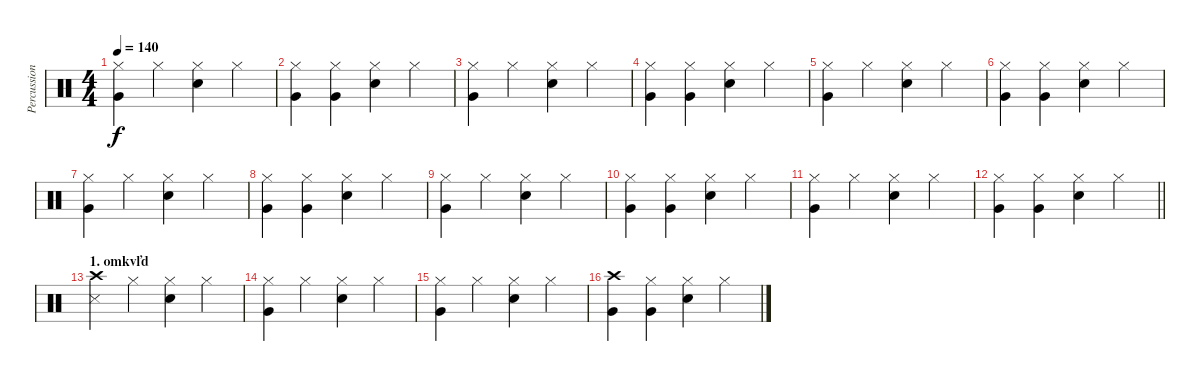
\track ("Percussion" "Percussion") {instrument percussion}
\staff {score}
\articulation defaults
\ts (4 4)
\tempo 140
\clef neutral
\ks c
("Hi-Hat (closed)" "Very Low Tom (hit)").4{dy f} "Hi-Hat (closed)".4 ("Hi-Hat (closed)" "Electric Snare (hit)").4 "Hi-Hat (closed)".4 |
("Hi-Hat (closed)" "Very Low Tom (hit)").4 ("Hi-Hat (closed)" "Very Low Tom (hit)").4 ("Hi-Hat (closed)" "Electric Snare (hit)").4 "Hi-Hat (closed)".4 |
("Hi-Hat (closed)" "Very Low Tom (hit)").4 "Hi-Hat (closed)".4 ("Hi-Hat (closed)" "Electric Snare (hit)").4 "Hi-Hat (closed)".4 |
("Hi-Hat (closed)" "Very Low Tom (hit)").4 ("Hi-Hat (closed)" "Very Low Tom (hit)").4 ("Hi-Hat (closed)" "Electric Snare (hit)").4 "Hi-Hat (closed)".4 |
("Hi-Hat (closed)" "Very Low Tom (hit)").4 "Hi-Hat (closed)".4 ("Hi-Hat (closed)" "Electric Snare (hit)").4 "Hi-Hat (closed)".4 |
("Hi-Hat (closed)" "Very Low Tom (hit)").4 ("Hi-Hat (closed)" "Very Low Tom (hit)").4 ("Hi-Hat (closed)" "Electric Snare (hit)").4 "Hi-Hat (closed)".4 |
("Hi-Hat (closed)" "Very Low Tom (hit)").4 "Hi-Hat (closed)".4 ("Hi-Hat (closed)" "Electric Snare (hit)").4 "Hi-Hat (closed)".4 |
("Hi-Hat (closed)" "Very Low Tom (hit)").4 ("Hi-Hat (closed)" "Very Low Tom (hit)").4 ("Hi-Hat (closed)" "Electric Snare (hit)").4 "Hi-Hat (closed)".4 |
("Hi-Hat (closed)" "Very Low Tom (hit)").4 "Hi-Hat (closed)".4 ("Hi-Hat (closed)" "Electric Snare (hit)").4 "Hi-Hat (closed)".4 |
("Hi-Hat (closed)" "Very Low Tom (hit)").4 ("Hi-Hat (closed)" "Very Low Tom (hit)").4 ("Hi-Hat (closed)" "Electric Snare (hit)").4 "Hi-Hat (closed)".4 |
("Hi-Hat (closed)" "Very Low Tom (hit)").4 "Hi-Hat (closed)".4 ("Hi-Hat (closed)" "Electric Snare (hit)").4 "Hi-Hat (closed)".4 |
\barLineRight lightlight
("Hi-Hat (closed)" "Very Low Tom (hit)").4 ("Hi-Hat (closed)" "Very Low Tom (hit)").4 ("Hi-Hat (closed)" "Electric Snare (hit)").4 "Hi-Hat (closed)".4 |
\section ("" "1. omkvľd")
("Crash high (hit)" "Metronome (hit)").4 "Hi-Hat (closed)".4 ("Hi-Hat (closed)" "Electric Snare (hit)").4 "Hi-Hat (closed)".4 |
("Hi-Hat (closed)" "Very Low Tom (hit)").4 "Hi-Hat (closed)".4 ("Hi-Hat (closed)" "Electric Snare (hit)").4 "Hi-Hat (closed)".4 |
("Hi-Hat (closed)" "Very Low Tom (hit)").4 "Hi-Hat (closed)".4 ("Hi-Hat (closed)" "Electric Snare (hit)").4 "Hi-Hat (closed)".4 |
("Crash high (hit)" "Very Low Tom (hit)").4 ("Hi-Hat (closed)" "Very Low Tom (hit)").4 ("Hi-Hat (closed)" "Electric Snare (hit)").4 "Hi-Hat (closed)".4
